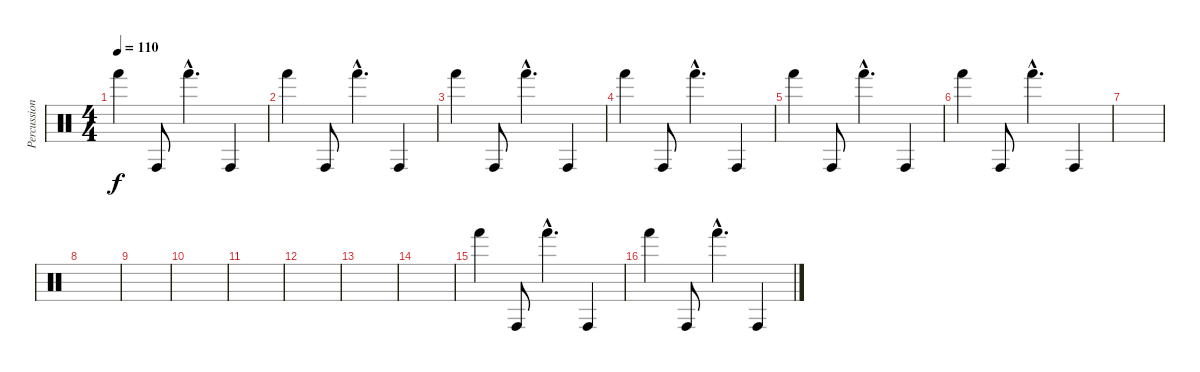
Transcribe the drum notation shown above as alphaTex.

\track ("Percussion" "Percussion") {instrument percussion}
\staff {score}
\articulation defaults
\ts (4 4)
\tempo 110
\clef neutral
\ks c "Hand (hit)".4{dy f} "Conga high (hit)".8 "Hand (hit)"{hac}.4{d} "Conga high (hit)".4
|
"Hand (hit)".4 "Conga high (hit)".8 "Hand (hit)"{hac}.4{d} "Conga high (hit)".4 |
"Hand (hit)".4 "Conga high (hit)".8 "Hand (hit)"{hac}.4{d} "Conga high (hit)".4 |
"Hand (hit)".4 "Conga high (hit)".8 "Hand (hit)"{hac}.4{d} "Conga high (hit)".4 |
"Hand (hit)".4 "Conga high (hit)".8 "Hand (hit)"{hac}.4{d} "Conga high (hit)".4 |
"Hand (hit)".4 "Conga high (hit)".8 "Hand (hit)"{hac}.4{d} "Conga high (hit)".4 |
|
|
|
|
|
|
|
|
"Hand (hit)".4 "Conga high (hit)".8 "Hand (hit)"{hac}.4{d} "Conga high (hit)".4 |
"Hand (hit)".4 "Conga high (hit)".8 "Hand (hit)"{hac}.4{d} "Conga high (hit)".4
